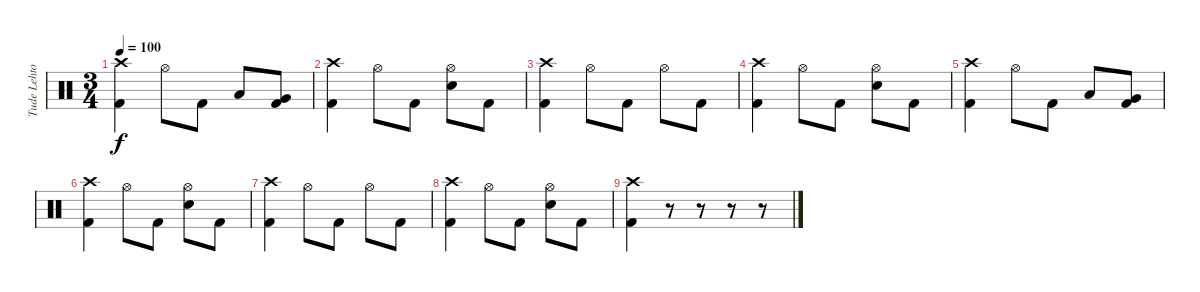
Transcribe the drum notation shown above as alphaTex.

\track ("Tude Lehtonen" "Tude Lehto") {instrument percussion}
\staff {score}
\articulation defaults
\ts (3 4)
\tempo 100
\clef neutral
\ks c
("Crash high (hit)" "Kick (hit) 2").4{dy f} "Hi-Hat (open)".8 "Kick (hit) 2".8 "Low Tom (hit)".8 ("Very Low Tom (hit)" "Kick (hit) 2").8 |
("Crash high (hit)" "Kick (hit) 2").4 "Hi-Hat (open)".8 "Kick (hit) 2".8 ("Hi-Hat (open)" "Electric Snare (hit)").8 "Kick (hit) 2".8 |
("Crash high (hit)" "Kick (hit) 2").4 "Hi-Hat (open)".8 "Kick (hit) 2".8 "Hi-Hat (open)".8 "Kick (hit) 2".8 |
("Crash high (hit)" "Kick (hit) 2").4 "Hi-Hat (open)".8 "Kick (hit) 2".8 ("Hi-Hat (open)" "Electric Snare (hit)").8 "Kick (hit) 2".8 |
("Crash high (hit)" "Kick (hit) 2").4 "Hi-Hat (open)".8 "Kick (hit) 2".8 "Low Tom (hit)".8 ("Very Low Tom (hit)" "Kick (hit) 2").8 |
("Crash high (hit)" "Kick (hit) 2").4 "Hi-Hat (open)".8 "Kick (hit) 2".8 ("Hi-Hat (open)" "Electric Snare (hit)").8 "Kick (hit) 2".8 |
("Crash high (hit)" "Kick (hit) 2").4 "Hi-Hat (open)".8 "Kick (hit) 2".8 "Hi-Hat (open)".8 "Kick (hit) 2".8 |
("Crash high (hit)" "Kick (hit) 2").4 "Hi-Hat (open)".8 "Kick (hit) 2".8 ("Hi-Hat (open)" "Electric Snare (hit)").8 "Kick (hit) 2".8 |
("Crash high (hit)" "Kick (hit) 2").4 r.8 r.8 r.8 r.8
